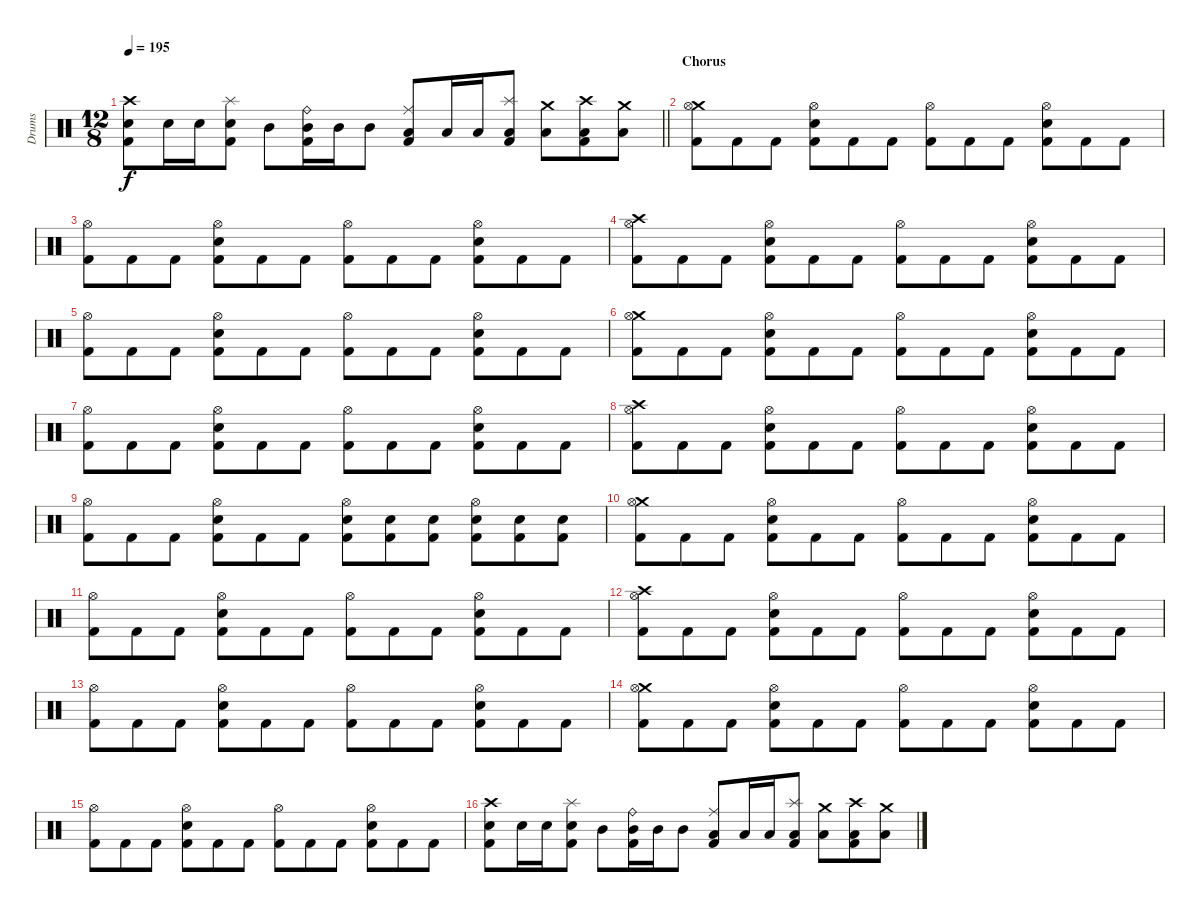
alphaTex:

\track ("Drums" "Drums") {instrument percussion}
\staff {score}
\articulation defaults
\ts (12 8)
\tempo 195
\clef neutral
\barLineRight lightlight
\ks c
("Crash high (hit)" "Snare (hit) 2" "Kick (hit) 2").8{dy f} "Snare (hit) 2".16 "Snare (hit) 2".16 ("Splash (hit)" "Snare (hit) 2" "Kick (hit) 2").8 "Mid Tom (hit)".8 ("Ride (bell)" "Mid Tom (hit)" "Kick (hit) 2").16 "Mid Tom (hit)".16 "Mid Tom (hit)".8 ("Ride (middle)" "Low Tom (hit)" "Kick (hit) 2").8 "Low Tom (hit)".16 "Low Tom (hit)".16 ("Splash (hit)" "Low Tom (hit)" "Kick (hit) 2").8 ("Crash medium (hit)" "Low Floor Tom (hit)").8 ("Crash high (hit)" "Low Floor Tom (hit)" "Kick (hit) 2").8 ("Crash medium (hit)" "Low Floor Tom (hit)").8 |
\section ("" "Chorus")
("Crash medium (hit)" "Hi-Hat (open)" "Kick (hit) 2").8 "Kick (hit) 2".8 "Kick (hit) 2".8 ("Hi-Hat (open)" "Snare (hit) 2" "Kick (hit) 2").8 "Kick (hit) 2".8 "Kick (hit) 2".8 ("Hi-Hat (open)" "Kick (hit) 2").8 "Kick (hit) 2".8 "Kick (hit) 2".8 ("Hi-Hat (open)" "Snare (hit) 2" "Kick (hit) 2").8 "Kick (hit) 2".8 "Kick (hit) 2".8 |
("Hi-Hat (open)" "Kick (hit) 2").8 "Kick (hit) 2".8 "Kick (hit) 2".8 ("Hi-Hat (open)" "Snare (hit) 2" "Kick (hit) 2").8 "Kick (hit) 2".8 "Kick (hit) 2".8 ("Hi-Hat (open)" "Kick (hit) 2").8 "Kick (hit) 2".8 "Kick (hit) 2".8 ("Hi-Hat (open)" "Snare (hit) 2" "Kick (hit) 2").8 "Kick (hit) 2".8 "Kick (hit) 2".8 |
("Crash high (hit)" "Hi-Hat (open)" "Kick (hit) 2").8 "Kick (hit) 2".8 "Kick (hit) 2".8 ("Hi-Hat (open)" "Snare (hit) 2" "Kick (hit) 2").8 "Kick (hit) 2".8 "Kick (hit) 2".8 ("Hi-Hat (open)" "Kick (hit) 2").8 "Kick (hit) 2".8 "Kick (hit) 2".8 ("Hi-Hat (open)" "Snare (hit) 2" "Kick (hit) 2").8 "Kick (hit) 2".8 "Kick (hit) 2".8 |
("Hi-Hat (open)" "Kick (hit) 2").8 "Kick (hit) 2".8 "Kick (hit) 2".8 ("Hi-Hat (open)" "Snare (hit) 2" "Kick (hit) 2").8 "Kick (hit) 2".8 "Kick (hit) 2".8 ("Hi-Hat (open)" "Kick (hit) 2").8 "Kick (hit) 2".8 "Kick (hit) 2".8 ("Hi-Hat (open)" "Snare (hit) 2" "Kick (hit) 2").8 "Kick (hit) 2".8 "Kick (hit) 2".8 |
("Crash medium (hit)" "Hi-Hat (open)" "Kick (hit) 2").8 "Kick (hit) 2".8 "Kick (hit) 2".8 ("Hi-Hat (open)" "Snare (hit) 2" "Kick (hit) 2").8 "Kick (hit) 2".8 "Kick (hit) 2".8 ("Hi-Hat (open)" "Kick (hit) 2").8 "Kick (hit) 2".8 "Kick (hit) 2".8 ("Hi-Hat (open)" "Snare (hit) 2" "Kick (hit) 2").8 "Kick (hit) 2".8 "Kick (hit) 2".8 |
("Hi-Hat (open)" "Kick (hit) 2").8 "Kick (hit) 2".8 "Kick (hit) 2".8 ("Hi-Hat (open)" "Snare (hit) 2" "Kick (hit) 2").8 "Kick (hit) 2".8 "Kick (hit) 2".8 ("Hi-Hat (open)" "Kick (hit) 2").8 "Kick (hit) 2".8 "Kick (hit) 2".8 ("Hi-Hat (open)" "Snare (hit) 2" "Kick (hit) 2").8 "Kick (hit) 2".8 "Kick (hit) 2".8 |
("Crash high (hit)" "Hi-Hat (open)" "Kick (hit) 2").8 "Kick (hit) 2".8 "Kick (hit) 2".8 ("Hi-Hat (open)" "Snare (hit) 2" "Kick (hit) 2").8 "Kick (hit) 2".8 "Kick (hit) 2".8 ("Hi-Hat (open)" "Kick (hit) 2").8 "Kick (hit) 2".8 "Kick (hit) 2".8 ("Hi-Hat (open)" "Snare (hit) 2" "Kick (hit) 2").8 "Kick (hit) 2".8 "Kick (hit) 2".8 |
("Hi-Hat (open)" "Kick (hit) 2").8 "Kick (hit) 2".8 "Kick (hit) 2".8 ("Hi-Hat (open)" "Snare (hit) 2" "Kick (hit) 2").8 "Kick (hit) 2".8 "Kick (hit) 2".8 ("Hi-Hat (open)" "Snare (hit) 2" "Kick (hit) 2").8 ("Snare (hit) 2" "Kick (hit) 2").8 ("Snare (hit) 2" "Kick (hit) 2").8 ("Hi-Hat (open)" "Snare (hit) 2" "Kick (hit) 2").8 ("Snare (hit) 2" "Kick (hit) 2").8 ("Snare (hit) 2" "Kick (hit) 2").8 |
("Crash medium (hit)" "Hi-Hat (open)" "Kick (hit) 2").8 "Kick (hit) 2".8 "Kick (hit) 2".8 ("Hi-Hat (open)" "Snare (hit) 2" "Kick (hit) 2").8 "Kick (hit) 2".8 "Kick (hit) 2".8 ("Hi-Hat (open)" "Kick (hit) 2").8 "Kick (hit) 2".8 "Kick (hit) 2".8 ("Hi-Hat (open)" "Snare (hit) 2" "Kick (hit) 2").8 "Kick (hit) 2".8 "Kick (hit) 2".8 |
("Hi-Hat (open)" "Kick (hit) 2").8 "Kick (hit) 2".8 "Kick (hit) 2".8 ("Hi-Hat (open)" "Snare (hit) 2" "Kick (hit) 2").8 "Kick (hit) 2".8 "Kick (hit) 2".8 ("Hi-Hat (open)" "Kick (hit) 2").8 "Kick (hit) 2".8 "Kick (hit) 2".8 ("Hi-Hat (open)" "Snare (hit) 2" "Kick (hit) 2").8 "Kick (hit) 2".8 "Kick (hit) 2".8 |
("Crash high (hit)" "Hi-Hat (open)" "Kick (hit) 2").8 "Kick (hit) 2".8 "Kick (hit) 2".8 ("Hi-Hat (open)" "Snare (hit) 2" "Kick (hit) 2").8 "Kick (hit) 2".8 "Kick (hit) 2".8 ("Hi-Hat (open)" "Kick (hit) 2").8 "Kick (hit) 2".8 "Kick (hit) 2".8 ("Hi-Hat (open)" "Snare (hit) 2" "Kick (hit) 2").8 "Kick (hit) 2".8 "Kick (hit) 2".8 |
("Hi-Hat (open)" "Kick (hit) 2").8 "Kick (hit) 2".8 "Kick (hit) 2".8 ("Hi-Hat (open)" "Snare (hit) 2" "Kick (hit) 2").8 "Kick (hit) 2".8 "Kick (hit) 2".8 ("Hi-Hat (open)" "Kick (hit) 2").8 "Kick (hit) 2".8 "Kick (hit) 2".8 ("Hi-Hat (open)" "Snare (hit) 2" "Kick (hit) 2").8 "Kick (hit) 2".8 "Kick (hit) 2".8 |
("Crash medium (hit)" "Hi-Hat (open)" "Kick (hit) 2").8 "Kick (hit) 2".8 "Kick (hit) 2".8 ("Hi-Hat (open)" "Snare (hit) 2" "Kick (hit) 2").8 "Kick (hit) 2".8 "Kick (hit) 2".8 ("Hi-Hat (open)" "Kick (hit) 2").8 "Kick (hit) 2".8 "Kick (hit) 2".8 ("Hi-Hat (open)" "Snare (hit) 2" "Kick (hit) 2").8 "Kick (hit) 2".8 "Kick (hit) 2".8 |
("Hi-Hat (open)" "Kick (hit) 2").8 "Kick (hit) 2".8 "Kick (hit) 2".8 ("Hi-Hat (open)" "Snare (hit) 2" "Kick (hit) 2").8 "Kick (hit) 2".8 "Kick (hit) 2".8 ("Hi-Hat (open)" "Kick (hit) 2").8 "Kick (hit) 2".8 "Kick (hit) 2".8 ("Hi-Hat (open)" "Snare (hit) 2" "Kick (hit) 2").8 "Kick (hit) 2".8 "Kick (hit) 2".8 |
("Crash high (hit)" "Snare (hit) 2" "Kick (hit) 2").8 "Snare (hit) 2".16 "Snare (hit) 2".16 ("Splash (hit)" "Snare (hit) 2" "Kick (hit) 2").8 "Mid Tom (hit)".8 ("Ride (bell)" "Mid Tom (hit)" "Kick (hit) 2").16 "Mid Tom (hit)".16 "Mid Tom (hit)".8 ("Ride (middle)" "Low Tom (hit)" "Kick (hit) 2").8 "Low Tom (hit)".16 "Low Tom (hit)".16 ("Splash (hit)" "Low Tom (hit)" "Kick (hit) 2").8 ("Crash medium (hit)" "Low Floor Tom (hit)").8 ("Crash high (hit)" "Low Floor Tom (hit)" "Kick (hit) 2").8 ("Crash medium (hit)" "Low Floor Tom (hit)").8
